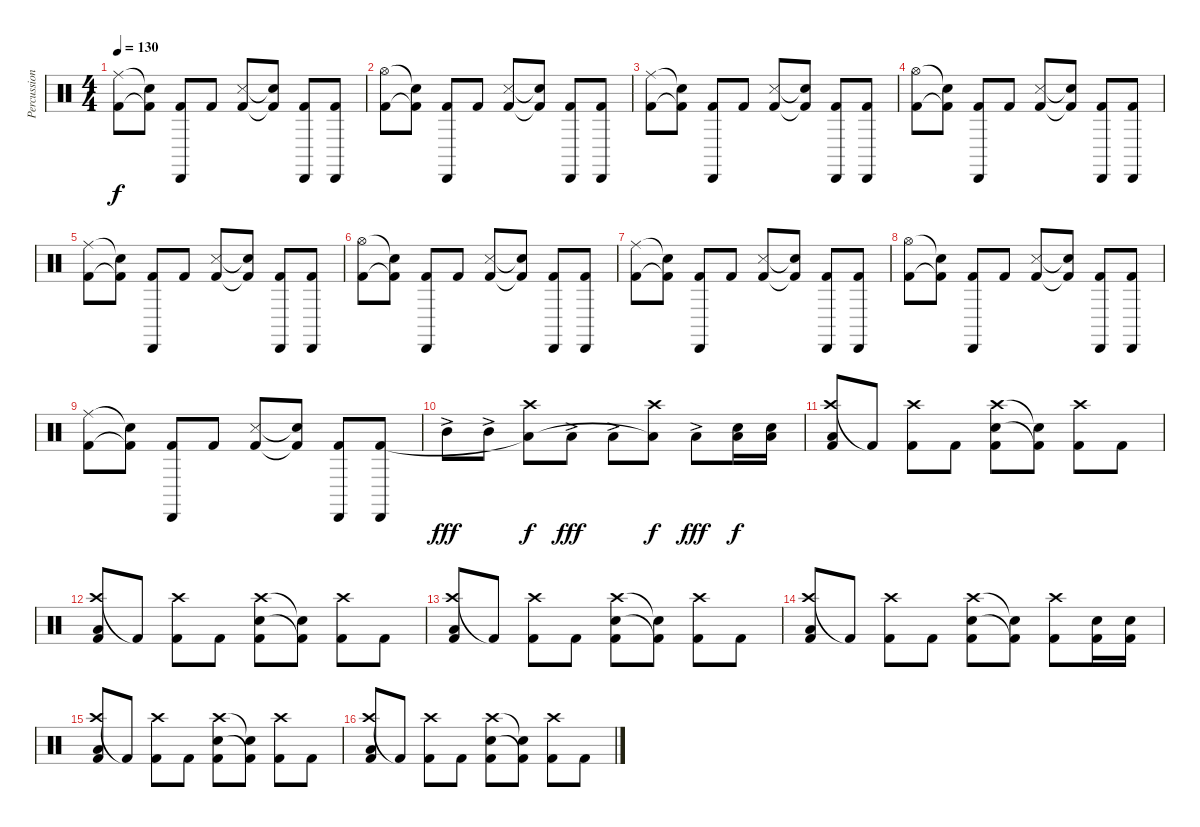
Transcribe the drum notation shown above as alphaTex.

\track ("Percussions" "Percussion") {instrument percussion}
\staff {score}
\articulation defaults
\ts (4 4)
\tempo 130
\clef neutral
\ks c
("Ride (middle)" "Kick (hit) 2").8{dy f} ("Snare (hit)"{t} "Kick (hit) 2"{t}).8 ("Cabasa (hit)" "Kick (hit) 2").8 "Kick (hit) 2".8 ("Snare (side stick) 3" "Kick (hit) 2").8 ("Snare (hit)"{t} "Kick (hit) 2"{t}).8 ("Cabasa (hit)" "Kick (hit) 2").8 ("Cabasa (hit)" "Kick (hit) 2").8 |
("Hi-Hat (open)" "Kick (hit) 2").8 ("Snare (hit)"{t} "Kick (hit) 2"{t}).8 ("Cabasa (hit)" "Kick (hit) 2").8 "Kick (hit) 2".8 ("Snare (side stick) 3" "Kick (hit) 2").8 ("Snare (hit)"{t} "Kick (hit) 2"{t}).8 ("Cabasa (hit)" "Kick (hit) 2").8 ("Cabasa (hit)" "Kick (hit) 2").8 |
("Ride (middle)" "Kick (hit) 2").8 ("Snare (hit)"{t} "Kick (hit) 2"{t}).8 ("Cabasa (hit)" "Kick (hit) 2").8 "Kick (hit) 2".8 ("Snare (side stick) 3" "Kick (hit) 2").8 ("Snare (hit)"{t} "Kick (hit) 2"{t}).8 ("Cabasa (hit)" "Kick (hit) 2").8 ("Cabasa (hit)" "Kick (hit) 2").8 |
("Hi-Hat (open)" "Kick (hit) 2").8 ("Snare (hit)"{t} "Kick (hit) 2"{t}).8 ("Cabasa (hit)" "Kick (hit) 2").8 "Kick (hit) 2".8 ("Snare (side stick) 3" "Kick (hit) 2").8 ("Snare (hit)"{t} "Kick (hit) 2"{t}).8 ("Cabasa (hit)" "Kick (hit) 2").8 ("Cabasa (hit)" "Kick (hit) 2").8 |
("Ride (middle)" "Kick (hit) 2").8 ("Snare (hit)"{t} "Kick (hit) 2"{t}).8 ("Cabasa (hit)" "Kick (hit) 2").8 "Kick (hit) 2".8 ("Snare (side stick) 3" "Kick (hit) 2").8 ("Snare (hit)"{t} "Kick (hit) 2"{t}).8 ("Cabasa (hit)" "Kick (hit) 2").8 ("Cabasa (hit)" "Kick (hit) 2").8 |
("Hi-Hat (open)" "Kick (hit) 2").8 ("Snare (hit)"{t} "Kick (hit) 2"{t}).8 ("Cabasa (hit)" "Kick (hit) 2").8 "Kick (hit) 2".8 ("Snare (side stick) 3" "Kick (hit) 2").8 ("Snare (hit)"{t} "Kick (hit) 2"{t}).8 ("Cabasa (hit)" "Kick (hit) 2").8 ("Cabasa (hit)" "Kick (hit) 2").8 |
("Ride (middle)" "Kick (hit) 2").8 ("Snare (hit)"{t} "Kick (hit) 2"{t}).8 ("Cabasa (hit)" "Kick (hit) 2").8 "Kick (hit) 2".8 ("Snare (side stick) 3" "Kick (hit) 2").8 ("Snare (hit)"{t} "Kick (hit) 2"{t}).8 ("Cabasa (hit)" "Kick (hit) 2").8 ("Cabasa (hit)" "Kick (hit) 2").8 |
("Hi-Hat (open)" "Kick (hit) 2").8 ("Snare (hit)"{t} "Kick (hit) 2"{t}).8 ("Cabasa (hit)" "Kick (hit) 2").8 "Kick (hit) 2".8 ("Snare (side stick) 3" "Kick (hit) 2").8 ("Snare (hit)"{t} "Kick (hit) 2"{t}).8 ("Cabasa (hit)" "Kick (hit) 2").8 ("Cabasa (hit)" "Kick (hit) 2").8 |
("Ride (middle)" "Kick (hit) 2").8 ("Snare (hit)"{t} "Kick (hit) 2"{t}).8 ("Cabasa (hit)" "Kick (hit) 2").8 "Kick (hit) 2".8 ("Snare (side stick) 3" "Kick (hit) 2").8 ("Snare (hit)"{t} "Kick (hit) 2"{t}).8 ("Cabasa (hit)" "Kick (hit) 2").8 ("Cabasa (hit)" "Kick (hit) 2").8 |
"Mid Tom (hit)"{ac}.8{dy fff} "Mid Tom (hit)"{ac}.8 ("Crash high (hit)" "Low Tom (hit)"{t}).8{dy f} "Low Tom (hit)"{ac}.8{dy fff} "Low Tom (hit)"{ac}.8 ("Crash high (hit)" "Low Tom (hit)"{t}).8{dy f} "Low Floor Tom (hit)"{ac}.8{dy fff} ("Snare (hit) 2" "Low Floor Tom (hit)").16{dy f} ("Snare (hit) 2" "Low Floor Tom (hit)").16 |
("Crash high (hit)" "Low Tom (hit)" "Kick (hit) 2").8 "Kick (hit) 2"{t}.8 ("Crash high (hit)" "Kick (hit) 2").8 "Kick (hit) 2".8 ("Crash high (hit)" "Snare (hit) 2" "Kick (hit) 2").8 ("Snare (hit)"{t} "Kick (hit) 2"{t}).8 ("Crash high (hit)" "Kick (hit) 2").8 "Kick (hit) 2".8 |
("Crash high (hit)" "Low Tom (hit)" "Kick (hit) 2").8 "Kick (hit) 2"{t}.8 ("Crash high (hit)" "Kick (hit) 2").8 "Kick (hit) 2".8 ("Crash high (hit)" "Snare (hit) 2" "Kick (hit) 2").8 ("Snare (hit)"{t} "Kick (hit) 2"{t}).8 ("Crash high (hit)" "Kick (hit) 2").8 "Kick (hit) 2".8 |
("Crash high (hit)" "Low Tom (hit)" "Kick (hit) 2").8 "Kick (hit) 2"{t}.8 ("Crash high (hit)" "Kick (hit) 2").8 "Kick (hit) 2".8 ("Crash high (hit)" "Snare (hit) 2" "Kick (hit) 2").8 ("Snare (hit)"{t} "Kick (hit) 2"{t}).8 ("Crash high (hit)" "Kick (hit) 2").8 "Kick (hit) 2".8 |
("Crash high (hit)" "Low Tom (hit)" "Kick (hit) 2").8 "Kick (hit) 2"{t}.8 ("Crash high (hit)" "Kick (hit) 2").8 "Kick (hit) 2".8 ("Crash high (hit)" "Snare (hit) 2" "Kick (hit) 2").8 ("Snare (hit)"{t} "Kick (hit) 2"{t}).8 ("Crash high (hit)" "Kick (hit) 2").8 ("Snare (hit) 2" "Kick (hit) 2").16 ("Snare (hit) 2" "Kick (hit) 2").16 |
("Crash high (hit)" "Low Tom (hit)" "Kick (hit) 2").8 "Kick (hit) 2"{t}.8 ("Crash high (hit)" "Kick (hit) 2").8 "Kick (hit) 2".8 ("Crash high (hit)" "Snare (hit) 2" "Kick (hit) 2").8 ("Snare (hit)"{t} "Kick (hit) 2"{t}).8 ("Crash high (hit)" "Kick (hit) 2").8 "Kick (hit) 2".8 |
("Crash high (hit)" "Low Tom (hit)" "Kick (hit) 2").8 "Kick (hit) 2"{t}.8 ("Crash high (hit)" "Kick (hit) 2").8 "Kick (hit) 2".8 ("Crash high (hit)" "Snare (hit) 2" "Kick (hit) 2").8 ("Snare (hit)"{t} "Kick (hit) 2"{t}).8 ("Crash high (hit)" "Kick (hit) 2").8 "Kick (hit) 2".8
